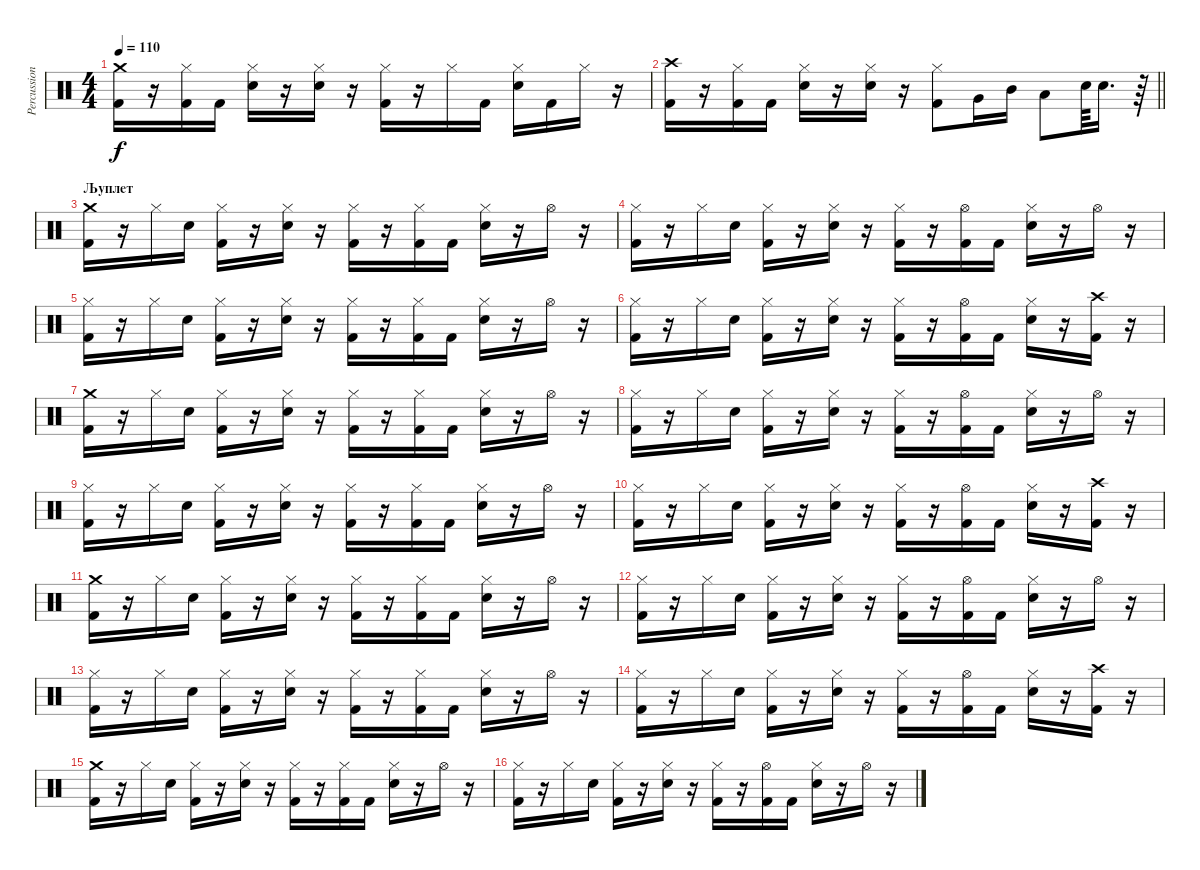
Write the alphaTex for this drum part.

\track ("Percussion" "Percussion") {instrument percussion}
\staff {score}
\articulation defaults
\ts (4 4)
\tempo 110
\clef neutral
\ks c
("Crash medium (hit)" "Kick (hit) 2").16{dy f} r.16 ("Hi-Hat (closed)" "Kick (hit) 2").16 "Kick (hit) 2".16 ("Hi-Hat (closed)" "Electric Snare (hit)").16 r.16 ("Hi-Hat (closed)" "Electric Snare (hit)").16 r.16 ("Hi-Hat (closed)" "Kick (hit) 2").16 r.16 "Hi-Hat (closed)".16 "Kick (hit) 2".16 ("Hi-Hat (closed)" "Electric Snare (hit)").16 "Kick (hit) 2".16 "Hi-Hat (closed)".16 r.16 |
\barLineRight lightlight
("Crash high (hit)" "Kick (hit) 2").16 r.16 ("Hi-Hat (closed)" "Kick (hit) 2").16 "Kick (hit) 2".16 ("Hi-Hat (closed)" "Electric Snare (hit)").16 r.16 ("Hi-Hat (closed)" "Electric Snare (hit)").16 r.16 ("Hi-Hat (closed)" "Kick (hit) 2").8 "Very Low Tom (hit)".16 "Mid Tom (hit)".16 "Low Tom (hit)".8 "Electric Snare (hit)".64 "Electric Snare (hit)".16{d} r.64 |
\section ("" "Љуплет")
("Crash medium (hit)" "Kick (hit) 2").16 r.16 "Hi-Hat (closed)".16 "Electric Snare (hit)".16 ("Hi-Hat (closed)" "Kick (hit) 2").16 r.16 ("Hi-Hat (closed)" "Electric Snare (hit)").16 r.16 ("Hi-Hat (closed)" "Kick (hit) 2").16 r.16 ("Hi-Hat (closed)" "Kick (hit) 2").16 "Kick (hit) 2".16 ("Hi-Hat (closed)" "Electric Snare (hit)").16 r.16 "Hi-Hat (open)".16 r.16 |
("Hi-Hat (closed)" "Kick (hit) 2").16 r.16 "Hi-Hat (closed)".16 "Electric Snare (hit)".16 ("Hi-Hat (closed)" "Kick (hit) 2").16 r.16 ("Hi-Hat (closed)" "Electric Snare (hit)").16 r.16 ("Hi-Hat (closed)" "Kick (hit) 2").16 r.16 ("Hi-Hat (open)" "Kick (hit) 2").16 "Kick (hit) 2".16 ("Hi-Hat (closed)" "Electric Snare (hit)").16 r.16 "Hi-Hat (open)".16 r.16 |
("Hi-Hat (closed)" "Kick (hit) 2").16 r.16 "Hi-Hat (closed)".16 "Electric Snare (hit)".16 ("Hi-Hat (closed)" "Kick (hit) 2").16 r.16 ("Hi-Hat (closed)" "Electric Snare (hit)").16 r.16 ("Hi-Hat (closed)" "Kick (hit) 2").16 r.16 ("Hi-Hat (closed)" "Kick (hit) 2").16 "Kick (hit) 2".16 ("Hi-Hat (closed)" "Electric Snare (hit)").16 r.16 "Hi-Hat (open)".16 r.16 |
("Hi-Hat (closed)" "Kick (hit) 2").16 r.16 "Hi-Hat (closed)".16 "Electric Snare (hit)".16 ("Hi-Hat (closed)" "Kick (hit) 2").16 r.16 ("Hi-Hat (closed)" "Electric Snare (hit)").16 r.16 ("Hi-Hat (closed)" "Kick (hit) 2").16 r.16 ("Hi-Hat (open)" "Kick (hit) 2").16 "Kick (hit) 2".16 ("Hi-Hat (closed)" "Electric Snare (hit)").16 r.16 ("Crash high (hit)" "Kick (hit) 2").16 r.16 |
("Crash medium (hit)" "Kick (hit) 2").16 r.16 "Hi-Hat (closed)".16 "Electric Snare (hit)".16 ("Hi-Hat (closed)" "Kick (hit) 2").16 r.16 ("Hi-Hat (closed)" "Electric Snare (hit)").16 r.16 ("Hi-Hat (closed)" "Kick (hit) 2").16 r.16 ("Hi-Hat (closed)" "Kick (hit) 2").16 "Kick (hit) 2".16 ("Hi-Hat (closed)" "Electric Snare (hit)").16 r.16 "Hi-Hat (open)".16 r.16 |
("Hi-Hat (closed)" "Kick (hit) 2").16 r.16 "Hi-Hat (closed)".16 "Electric Snare (hit)".16 ("Hi-Hat (closed)" "Kick (hit) 2").16 r.16 ("Hi-Hat (closed)" "Electric Snare (hit)").16 r.16 ("Hi-Hat (closed)" "Kick (hit) 2").16 r.16 ("Hi-Hat (open)" "Kick (hit) 2").16 "Kick (hit) 2".16 ("Hi-Hat (closed)" "Electric Snare (hit)").16 r.16 "Hi-Hat (open)".16 r.16 |
("Hi-Hat (closed)" "Kick (hit) 2").16 r.16 "Hi-Hat (closed)".16 "Electric Snare (hit)".16 ("Hi-Hat (closed)" "Kick (hit) 2").16 r.16 ("Hi-Hat (closed)" "Electric Snare (hit)").16 r.16 ("Hi-Hat (closed)" "Kick (hit) 2").16 r.16 ("Hi-Hat (closed)" "Kick (hit) 2").16 "Kick (hit) 2".16 ("Hi-Hat (closed)" "Electric Snare (hit)").16 r.16 "Hi-Hat (open)".16 r.16 |
("Hi-Hat (closed)" "Kick (hit) 2").16 r.16 "Hi-Hat (closed)".16 "Electric Snare (hit)".16 ("Hi-Hat (closed)" "Kick (hit) 2").16 r.16 ("Hi-Hat (closed)" "Electric Snare (hit)").16 r.16 ("Hi-Hat (closed)" "Kick (hit) 2").16 r.16 ("Hi-Hat (open)" "Kick (hit) 2").16 "Kick (hit) 2".16 ("Hi-Hat (closed)" "Electric Snare (hit)").16 r.16 ("Crash high (hit)" "Kick (hit) 2").16 r.16 |
("Crash medium (hit)" "Kick (hit) 2").16 r.16 "Hi-Hat (closed)".16 "Electric Snare (hit)".16 ("Hi-Hat (closed)" "Kick (hit) 2").16 r.16 ("Hi-Hat (closed)" "Electric Snare (hit)").16 r.16 ("Hi-Hat (closed)" "Kick (hit) 2").16 r.16 ("Hi-Hat (closed)" "Kick (hit) 2").16 "Kick (hit) 2".16 ("Hi-Hat (closed)" "Electric Snare (hit)").16 r.16 "Hi-Hat (open)".16 r.16 |
("Hi-Hat (closed)" "Kick (hit) 2").16 r.16 "Hi-Hat (closed)".16 "Electric Snare (hit)".16 ("Hi-Hat (closed)" "Kick (hit) 2").16 r.16 ("Hi-Hat (closed)" "Electric Snare (hit)").16 r.16 ("Hi-Hat (closed)" "Kick (hit) 2").16 r.16 ("Hi-Hat (open)" "Kick (hit) 2").16 "Kick (hit) 2".16 ("Hi-Hat (closed)" "Electric Snare (hit)").16 r.16 "Hi-Hat (open)".16 r.16 |
("Hi-Hat (closed)" "Kick (hit) 2").16 r.16 "Hi-Hat (closed)".16 "Electric Snare (hit)".16 ("Hi-Hat (closed)" "Kick (hit) 2").16 r.16 ("Hi-Hat (closed)" "Electric Snare (hit)").16 r.16 ("Hi-Hat (closed)" "Kick (hit) 2").16 r.16 ("Hi-Hat (closed)" "Kick (hit) 2").16 "Kick (hit) 2".16 ("Hi-Hat (closed)" "Electric Snare (hit)").16 r.16 "Hi-Hat (open)".16 r.16 |
("Hi-Hat (closed)" "Kick (hit) 2").16 r.16 "Hi-Hat (closed)".16 "Electric Snare (hit)".16 ("Hi-Hat (closed)" "Kick (hit) 2").16 r.16 ("Hi-Hat (closed)" "Electric Snare (hit)").16 r.16 ("Hi-Hat (closed)" "Kick (hit) 2").16 r.16 ("Hi-Hat (open)" "Kick (hit) 2").16 "Kick (hit) 2".16 ("Hi-Hat (closed)" "Electric Snare (hit)").16 r.16 ("Crash high (hit)" "Kick (hit) 2").16 r.16 |
("Crash medium (hit)" "Kick (hit) 2").16 r.16 "Hi-Hat (closed)".16 "Electric Snare (hit)".16 ("Hi-Hat (closed)" "Kick (hit) 2").16 r.16 ("Hi-Hat (closed)" "Electric Snare (hit)").16 r.16 ("Hi-Hat (closed)" "Kick (hit) 2").16 r.16 ("Hi-Hat (closed)" "Kick (hit) 2").16 "Kick (hit) 2".16 ("Hi-Hat (closed)" "Electric Snare (hit)").16 r.16 "Hi-Hat (open)".16 r.16 |
("Hi-Hat (closed)" "Kick (hit) 2").16 r.16 "Hi-Hat (closed)".16 "Electric Snare (hit)".16 ("Hi-Hat (closed)" "Kick (hit) 2").16 r.16 ("Hi-Hat (closed)" "Electric Snare (hit)").16 r.16 ("Hi-Hat (closed)" "Kick (hit) 2").16 r.16 ("Hi-Hat (open)" "Kick (hit) 2").16 "Kick (hit) 2".16 ("Hi-Hat (closed)" "Electric Snare (hit)").16 r.16 "Hi-Hat (open)".16 r.16
